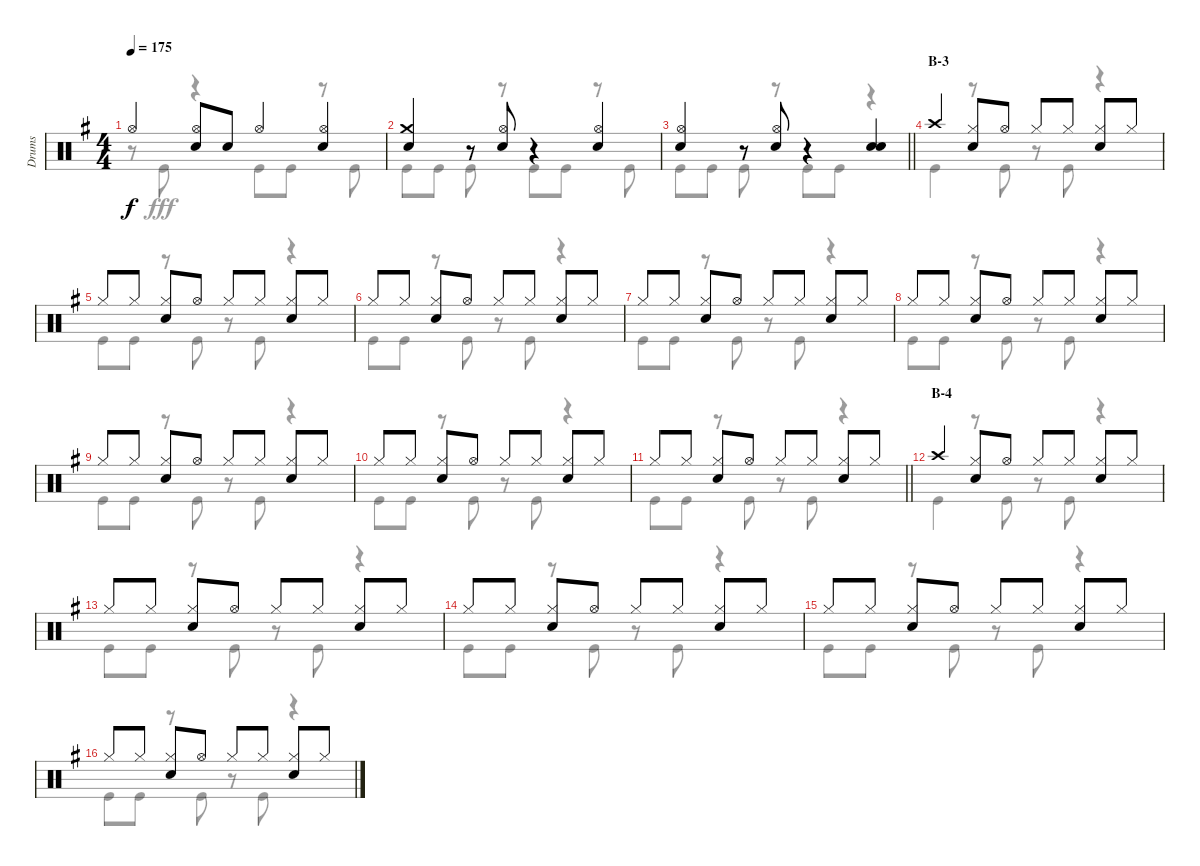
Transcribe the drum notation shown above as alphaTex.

\track ("Drums" "Drums") {instrument percussion}
\staff {score}
\articulation defaults
\voice
\ts (4 4)
\tempo 175
\clef neutral
\ks g "Hi-Hat (open)".4{dy f}
("Hi-Hat (open)" "Snare (hit) 2").8 "Snare (hit) 2".8 "Hi-Hat (open)".4 ("Hi-Hat (open)" "Snare (hit) 2").4 |
("Crash medium (hit)" "Snare (hit) 2").4 r.8 ("Hi-Hat (open)" "Snare (hit) 2").8 r.4 ("Hi-Hat (open)" "Snare (hit) 2").4 |
\barLineRight lightlight
("Hi-Hat (open)" "Snare (hit) 2").4 r.8 ("Hi-Hat (open)" "Snare (hit) 2").8 r.4 ("Snare (hit) 2" "Snare (hit) 2").4 |
\section ("" "B-3")
"Crash high (hit)".4 ("Hi-Hat (closed)" "Snare (hit) 2").8 "Hi-Hat (open)".8 "Hi-Hat (closed)".8 "Hi-Hat (closed)".8 ("Hi-Hat (closed)" "Snare (hit) 2").8 "Hi-Hat (closed)".8 |
"Hi-Hat (closed)".8 "Hi-Hat (closed)".8 ("Hi-Hat (closed)" "Snare (hit) 2").8 "Hi-Hat (open)".8 "Hi-Hat (closed)".8 "Hi-Hat (closed)".8 ("Hi-Hat (closed)" "Snare (hit) 2").8 "Hi-Hat (closed)".8 |
"Hi-Hat (closed)".8 "Hi-Hat (closed)".8 ("Hi-Hat (closed)" "Snare (hit) 2").8 "Hi-Hat (open)".8 "Hi-Hat (closed)".8 "Hi-Hat (closed)".8 ("Hi-Hat (closed)" "Snare (hit) 2").8 "Hi-Hat (closed)".8 |
"Hi-Hat (closed)".8 "Hi-Hat (closed)".8 ("Hi-Hat (closed)" "Snare (hit) 2").8 "Hi-Hat (open)".8 "Hi-Hat (closed)".8 "Hi-Hat (closed)".8 ("Hi-Hat (closed)" "Snare (hit) 2").8 "Hi-Hat (closed)".8 |
"Hi-Hat (closed)".8 "Hi-Hat (closed)".8 ("Hi-Hat (closed)" "Snare (hit) 2").8 "Hi-Hat (open)".8 "Hi-Hat (closed)".8 "Hi-Hat (closed)".8 ("Hi-Hat (closed)" "Snare (hit) 2").8 "Hi-Hat (closed)".8 |
"Hi-Hat (closed)".8 "Hi-Hat (closed)".8 ("Hi-Hat (closed)" "Snare (hit) 2").8 "Hi-Hat (open)".8 "Hi-Hat (closed)".8 "Hi-Hat (closed)".8 ("Hi-Hat (closed)" "Snare (hit) 2").8 "Hi-Hat (closed)".8 |
"Hi-Hat (closed)".8 "Hi-Hat (closed)".8 ("Hi-Hat (closed)" "Snare (hit) 2").8 "Hi-Hat (open)".8 "Hi-Hat (closed)".8 "Hi-Hat (closed)".8 ("Hi-Hat (closed)" "Snare (hit) 2").8 "Hi-Hat (closed)".8 |
\barLineRight lightlight "Hi-Hat (closed)".8 "Hi-Hat (closed)".8
("Hi-Hat (closed)" "Snare (hit) 2").8 "Hi-Hat (open)".8 "Hi-Hat (closed)".8 "Hi-Hat (closed)".8 ("Hi-Hat (closed)" "Snare (hit) 2").8 "Hi-Hat (closed)".8 |
\section ("" "B-4")
"Crash high (hit)".4 ("Hi-Hat (closed)" "Snare (hit) 2").8 "Hi-Hat (open)".8 "Hi-Hat (closed)".8 "Hi-Hat (closed)".8 ("Hi-Hat (closed)" "Snare (hit) 2").8 "Hi-Hat (closed)".8 |
"Hi-Hat (closed)".8 "Hi-Hat (closed)".8 ("Hi-Hat (closed)" "Snare (hit) 2").8 "Hi-Hat (open)".8 "Hi-Hat (closed)".8 "Hi-Hat (closed)".8 ("Hi-Hat (closed)" "Snare (hit) 2").8 "Hi-Hat (closed)".8 |
"Hi-Hat (closed)".8 "Hi-Hat (closed)".8 ("Hi-Hat (closed)" "Snare (hit) 2").8 "Hi-Hat (open)".8 "Hi-Hat (closed)".8 "Hi-Hat (closed)".8 ("Hi-Hat (closed)" "Snare (hit) 2").8 "Hi-Hat (closed)".8 |
"Hi-Hat (closed)".8 "Hi-Hat (closed)".8 ("Hi-Hat (closed)" "Snare (hit) 2").8 "Hi-Hat (open)".8 "Hi-Hat (closed)".8 "Hi-Hat (closed)".8 ("Hi-Hat (closed)" "Snare (hit) 2").8 "Hi-Hat (closed)".8 |
"Hi-Hat (closed)".8 "Hi-Hat (closed)".8 ("Hi-Hat (closed)" "Snare (hit) 2").8 "Hi-Hat (open)".8 "Hi-Hat (closed)".8 "Hi-Hat (closed)".8 ("Hi-Hat (closed)" "Snare (hit) 2").8 "Hi-Hat (closed)".8
\voice
\clef neutral
\ottava regular
\simile none
\ks g
r.8{dy fff} "Kick (hit)".8 r.4 "Kick (hit)".8 "Kick (hit)".8 r.8 "Kick (hit)".8 |
"Kick (hit)".8 "Kick (hit)".8 "Kick (hit)".8 r.8 "Kick (hit)".8 "Kick (hit)".8 r.8 "Kick (hit)".8 |
\barLineRight lightlight "Kick (hit)".8 "Kick (hit)".8 "Kick (hit)".8
r.8 "Kick (hit)".8 "Kick (hit)".8 r.4 |
"Kick (hit)".4 r.8 "Kick (hit)".8 r.8 "Kick (hit)".8 r.4 |
"Kick (hit)".8 "Kick (hit)".8 r.8 "Kick (hit)".8 r.8 "Kick (hit)".8 r.4 |
"Kick (hit)".8 "Kick (hit)".8 r.8 "Kick (hit)".8 r.8 "Kick (hit)".8 r.4 |
"Kick (hit)".8 "Kick (hit)".8 r.8 "Kick (hit)".8 r.8 "Kick (hit)".8 r.4 |
"Kick (hit)".8 "Kick (hit)".8 r.8 "Kick (hit)".8 r.8 "Kick (hit)".8 r.4 |
"Kick (hit)".8 "Kick (hit)".8 r.8 "Kick (hit)".8 r.8 "Kick (hit)".8 r.4 |
"Kick (hit)".8 "Kick (hit)".8 r.8 "Kick (hit)".8 r.8 "Kick (hit)".8 r.4 |
\barLineRight lightlight "Kick (hit)".8 "Kick (hit)".8
r.8 "Kick (hit)".8 r.8 "Kick (hit)".8 r.4 |
"Kick (hit)".4 r.8 "Kick (hit)".8 r.8 "Kick (hit)".8 r.4 |
"Kick (hit)".8 "Kick (hit)".8 r.8 "Kick (hit)".8 r.8 "Kick (hit)".8 r.4 |
"Kick (hit)".8 "Kick (hit)".8 r.8 "Kick (hit)".8 r.8 "Kick (hit)".8 r.4 |
"Kick (hit)".8 "Kick (hit)".8 r.8 "Kick (hit)".8 r.8 "Kick (hit)".8 r.4 |
"Kick (hit)".8 "Kick (hit)".8 r.8 "Kick (hit)".8 r.8 "Kick (hit)".8 r.4
